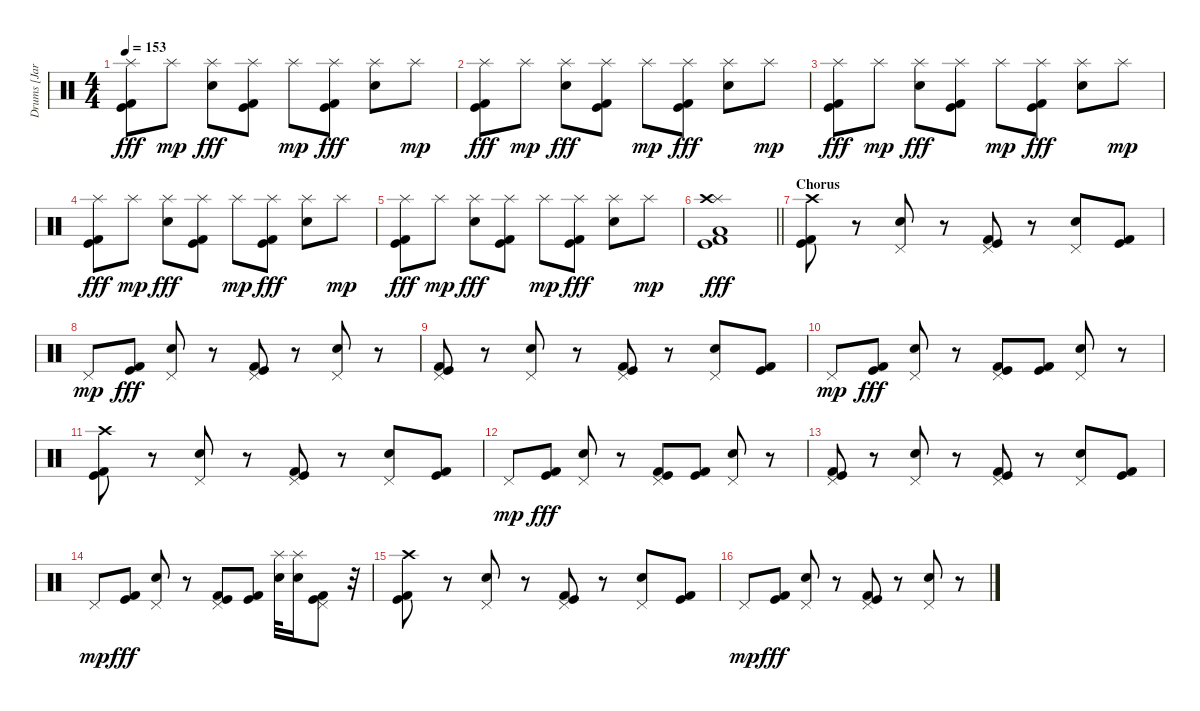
\track ("Drums [Jari]" "Drums [Jar") {instrument percussion}
\staff {score}
\articulation defaults
\ts (4 4)
\tempo 153
\clef neutral
\ks c
("Kick (hit) 2" "Splash (hit)" "Kick (hit)").8{dy fff} "Splash (hit)".8{dy mp} ("Splash (hit)" "Electric Snare (hit)").8{dy fff} ("Kick (hit) 2" "Splash (hit)" "Kick (hit)").8 "Splash (hit)".8{dy mp} ("Kick (hit) 2" "Splash (hit)" "Kick (hit)").8{dy fff} ("Splash (hit)" "Electric Snare (hit)").8 "Splash (hit)".8{dy mp} |
("Kick (hit) 2" "Splash (hit)" "Kick (hit)").8{dy fff} "Splash (hit)".8{dy mp} ("Splash (hit)" "Electric Snare (hit)").8{dy fff} ("Kick (hit) 2" "Splash (hit)" "Kick (hit)").8 "Splash (hit)".8{dy mp} ("Kick (hit) 2" "Splash (hit)" "Kick (hit)").8{dy fff} ("Splash (hit)" "Electric Snare (hit)").8 "Splash (hit)".8{dy mp} |
("Kick (hit) 2" "Splash (hit)" "Kick (hit)").8{dy fff} "Splash (hit)".8{dy mp} ("Splash (hit)" "Electric Snare (hit)").8{dy fff} ("Kick (hit) 2" "Splash (hit)" "Kick (hit)").8 "Splash (hit)".8{dy mp} ("Kick (hit) 2" "Splash (hit)" "Kick (hit)").8{dy fff} ("Splash (hit)" "Electric Snare (hit)").8 "Splash (hit)".8{dy mp} |
("Kick (hit) 2" "Splash (hit)" "Kick (hit)").8{dy fff} "Splash (hit)".8{dy mp} ("Splash (hit)" "Electric Snare (hit)").8{dy fff} ("Kick (hit) 2" "Splash (hit)" "Kick (hit)").8 "Splash (hit)".8{dy mp} ("Kick (hit) 2" "Splash (hit)" "Kick (hit)").8{dy fff} ("Splash (hit)" "Electric Snare (hit)").8 "Splash (hit)".8{dy mp} |
("Kick (hit) 2" "Splash (hit)" "Kick (hit)").8{dy fff} "Splash (hit)".8{dy mp} ("Splash (hit)" "Electric Snare (hit)").8{dy fff} ("Kick (hit) 2" "Splash (hit)" "Kick (hit)").8 "Splash (hit)".8{dy mp} ("Kick (hit) 2" "Splash (hit)" "Kick (hit)").8{dy fff} ("Splash (hit)" "Electric Snare (hit)").8 "Splash (hit)".8{dy mp} |
\barLineRight lightlight
("Kick (hit) 2" "Low Floor Tom (hit)" "Splash (hit)" "Crash high (hit)" "Kick (hit)").1{dy fff} |
\section ("" "Chorus")
("Kick (hit) 2" "Crash high (hit)" "Kick (hit)").8 r.8 ("Pedal Hi-Hat (hit)" "Electric Snare (hit)").8 r.8 ("Kick (hit) 2" "Pedal Hi-Hat (hit)" "Kick (hit)").8 r.8 ("Pedal Hi-Hat (hit)" "Electric Snare (hit)").8 ("Kick (hit) 2" "Kick (hit)").8 |
"Pedal Hi-Hat (hit)".8{dy mp} ("Kick (hit) 2" "Kick (hit)").8{dy fff} ("Pedal Hi-Hat (hit)" "Electric Snare (hit)").8 r.8 ("Kick (hit) 2" "Pedal Hi-Hat (hit)" "Kick (hit)").8 r.8 ("Pedal Hi-Hat (hit)" "Electric Snare (hit)").8 r.8 |
("Kick (hit) 2" "Pedal Hi-Hat (hit)" "Kick (hit)").8 r.8 ("Pedal Hi-Hat (hit)" "Electric Snare (hit)").8 r.8 ("Kick (hit) 2" "Pedal Hi-Hat (hit)" "Kick (hit)").8 r.8 ("Pedal Hi-Hat (hit)" "Electric Snare (hit)").8 ("Kick (hit) 2" "Kick (hit)").8 |
"Pedal Hi-Hat (hit)".8{dy mp} ("Kick (hit) 2" "Kick (hit)").8{dy fff} ("Pedal Hi-Hat (hit)" "Electric Snare (hit)").8 r.8 ("Kick (hit) 2" "Pedal Hi-Hat (hit)" "Kick (hit)").8 ("Kick (hit) 2" "Kick (hit)").8 ("Pedal Hi-Hat (hit)" "Electric Snare (hit)").8 r.8 |
("Kick (hit) 2" "Crash high (hit)" "Kick (hit)").8 r.8 ("Pedal Hi-Hat (hit)" "Electric Snare (hit)").8 r.8 ("Kick (hit) 2" "Pedal Hi-Hat (hit)" "Kick (hit)").8 r.8 ("Pedal Hi-Hat (hit)" "Electric Snare (hit)").8 ("Kick (hit) 2" "Kick (hit)").8 |
"Pedal Hi-Hat (hit)".8{dy mp} ("Kick (hit) 2" "Kick (hit)").8{dy fff} ("Pedal Hi-Hat (hit)" "Electric Snare (hit)").8 r.8 ("Kick (hit) 2" "Pedal Hi-Hat (hit)" "Kick (hit)").8 ("Kick (hit) 2" "Kick (hit)").8 ("Pedal Hi-Hat (hit)" "Electric Snare (hit)").8 r.8 |
("Kick (hit) 2" "Pedal Hi-Hat (hit)" "Kick (hit)").8 r.8 ("Pedal Hi-Hat (hit)" "Electric Snare (hit)").8 r.8 ("Kick (hit) 2" "Pedal Hi-Hat (hit)" "Kick (hit)").8 r.8 ("Pedal Hi-Hat (hit)" "Electric Snare (hit)").8 ("Kick (hit) 2" "Kick (hit)").8 |
"Pedal Hi-Hat (hit)".8{dy mp} ("Kick (hit) 2" "Kick (hit)").8{dy fff} ("Pedal Hi-Hat (hit)" "Electric Snare (hit)").8 r.8 ("Kick (hit) 2" "Pedal Hi-Hat (hit)" "Kick (hit)").8 ("Kick (hit) 2" "Kick (hit)").8 ("Splash (hit)" "Electric Snare (hit)").32 ("Splash (hit)" "Electric Snare (hit)").16 ("Kick (hit) 2" "Pedal Hi-Hat (hit)" "Kick (hit)").8 r.32 |
("Kick (hit) 2" "Crash high (hit)" "Kick (hit)").8 r.8 ("Pedal Hi-Hat (hit)" "Electric Snare (hit)").8 r.8 ("Kick (hit) 2" "Pedal Hi-Hat (hit)" "Kick (hit)").8 r.8 ("Pedal Hi-Hat (hit)" "Electric Snare (hit)").8 ("Kick (hit) 2" "Kick (hit)").8 |
"Pedal Hi-Hat (hit)".8{dy mp} ("Kick (hit) 2" "Kick (hit)").8{dy fff} ("Pedal Hi-Hat (hit)" "Electric Snare (hit)").8 r.8 ("Kick (hit) 2" "Pedal Hi-Hat (hit)" "Kick (hit)").8 r.8 ("Pedal Hi-Hat (hit)" "Electric Snare (hit)").8 r.8
